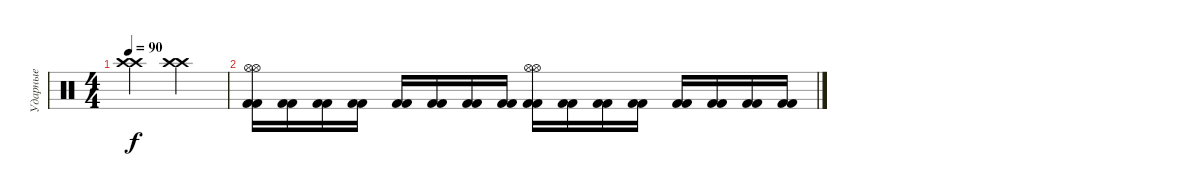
\track ("Ударные" "Ударные") {instrument percussion}
\staff {score}
\articulation defaults
\ts (4 4)
\tempo 90
\clef neutral
\ks c
("Crash high (hit)" "Crash high (hit)").2{dy f} ("Crash high (hit)" "Crash high (hit)").2 |
("Kick (hit) 2" "Kick (hit) 2" "Hi-Hat (open)" "Hi-Hat (open)").16 ("Kick (hit) 2" "Kick (hit) 2").16 ("Kick (hit) 2" "Kick (hit) 2").16 ("Kick (hit) 2" "Kick (hit) 2").16 ("Kick (hit) 2" "Kick (hit) 2").16 ("Kick (hit) 2" "Kick (hit) 2").16 ("Kick (hit) 2" "Kick (hit) 2").16 ("Kick (hit) 2" "Kick (hit) 2").16 ("Kick (hit) 2" "Kick (hit) 2" "Hi-Hat (open)" "Hi-Hat (open)").16 ("Kick (hit) 2" "Kick (hit) 2").16 ("Kick (hit) 2" "Kick (hit) 2").16 ("Kick (hit) 2" "Kick (hit) 2").16 ("Kick (hit) 2" "Kick (hit) 2").16 ("Kick (hit) 2" "Kick (hit) 2").16 ("Kick (hit) 2" "Kick (hit) 2").16 ("Kick (hit) 2" "Kick (hit) 2").16
